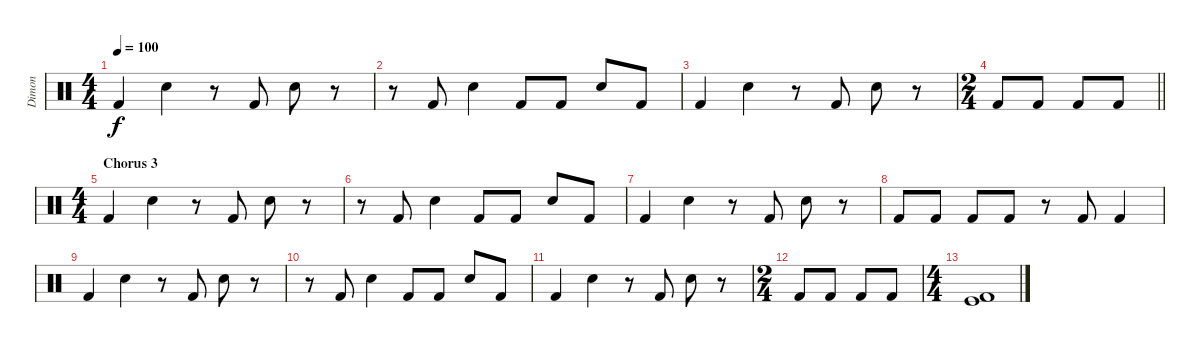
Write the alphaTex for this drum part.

\track ("Dimon" "Dimon") {instrument percussion}
\staff {score}
\articulation defaults
\ts (4 4)
\tempo 100
\clef neutral
\ks c "Kick (hit) 2".4{dy f} "Electric Snare (hit)".4
r.8 "Kick (hit) 2".8 "Electric Snare (hit)".8 r.8 |
r.8 "Kick (hit) 2".8 "Electric Snare (hit)".4 "Kick (hit) 2".8 "Kick (hit) 2".8 "Electric Snare (hit)".8 "Kick (hit) 2".8 |
"Kick (hit) 2".4 "Electric Snare (hit)".4 r.8 "Kick (hit) 2".8 "Electric Snare (hit)".8 r.8 |
\ts (2 4)
\barLineRight lightlight "Kick (hit) 2".8 "Kick (hit) 2".8 "Kick (hit) 2".8 "Kick (hit) 2".8
|
\ts (4 4)
\section ("" "Chorus 3")
"Kick (hit) 2".4 "Electric Snare (hit)".4 r.8 "Kick (hit) 2".8 "Electric Snare (hit)".8 r.8 |
r.8 "Kick (hit) 2".8 "Electric Snare (hit)".4 "Kick (hit) 2".8 "Kick (hit) 2".8 "Electric Snare (hit)".8 "Kick (hit) 2".8 |
"Kick (hit) 2".4 "Electric Snare (hit)".4 r.8 "Kick (hit) 2".8 "Electric Snare (hit)".8 r.8 |
"Kick (hit) 2".8 "Kick (hit) 2".8 "Kick (hit) 2".8 "Kick (hit) 2".8 r.8 "Kick (hit) 2".8 "Kick (hit) 2".4 |
"Kick (hit) 2".4 "Electric Snare (hit)".4 r.8 "Kick (hit) 2".8 "Electric Snare (hit)".8 r.8 |
r.8 "Kick (hit) 2".8 "Electric Snare (hit)".4 "Kick (hit) 2".8 "Kick (hit) 2".8 "Electric Snare (hit)".8 "Kick (hit) 2".8 |
"Kick (hit) 2".4 "Electric Snare (hit)".4 r.8 "Kick (hit) 2".8 "Electric Snare (hit)".8 r.8 |
\ts (2 4)
"Kick (hit) 2".8 "Kick (hit) 2".8 "Kick (hit) 2".8 "Kick (hit) 2".8 |
\ts (4 4)
("Kick (hit)" "Kick (hit) 2").1
